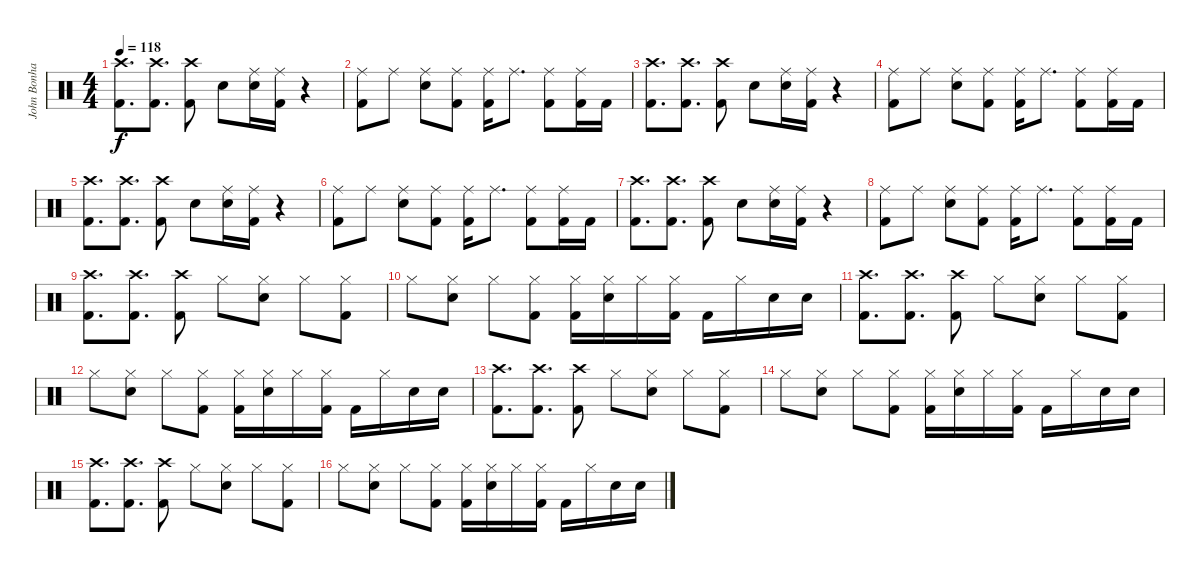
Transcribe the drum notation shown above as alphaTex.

\track ("John Bonham (Bateria)" "John Bonha") {instrument percussion}
\staff {score}
\articulation defaults
\ts (4 4)
\tempo 118
\clef neutral
\ks c
("Crash high (hit)" "Kick (hit) 2").8{d dy f} ("Kick (hit) 2" "Crash high (hit)").8{d} ("Kick (hit) 2" "Crash high (hit)").8 "Snare (hit) 2".8 ("Snare (hit) 2" "Ride (middle)").16 ("Kick (hit) 2" "Ride (middle)").16 r.4 |
("Ride (middle)" "Kick (hit) 2").8 "Ride (middle)".8 ("Snare (hit) 2" "Ride (middle)").8 ("Kick (hit) 2" "Ride (middle)").8 ("Kick (hit) 2" "Ride (middle)").16 "Ride (middle)".8{d} ("Kick (hit) 2" "Ride (middle)").8 ("Kick (hit) 2" "Ride (middle)").16 "Kick (hit) 2".16 |
("Crash high (hit)" "Kick (hit) 2").8{d} ("Kick (hit) 2" "Crash high (hit)").8{d} ("Kick (hit) 2" "Crash high (hit)").8 "Snare (hit) 2".8 ("Snare (hit) 2" "Ride (middle)").16 ("Kick (hit) 2" "Ride (middle)").16 r.4 |
("Ride (middle)" "Kick (hit) 2").8 "Ride (middle)".8 ("Snare (hit) 2" "Ride (middle)").8 ("Kick (hit) 2" "Ride (middle)").8 ("Kick (hit) 2" "Ride (middle)").16 "Ride (middle)".8{d} ("Kick (hit) 2" "Ride (middle)").8 ("Kick (hit) 2" "Ride (middle)").16 "Kick (hit) 2".16 |
("Crash high (hit)" "Kick (hit) 2").8{d} ("Kick (hit) 2" "Crash high (hit)").8{d} ("Kick (hit) 2" "Crash high (hit)").8 "Snare (hit) 2".8 ("Snare (hit) 2" "Ride (middle)").16 ("Kick (hit) 2" "Ride (middle)").16 r.4 |
("Ride (middle)" "Kick (hit) 2").8 "Ride (middle)".8 ("Snare (hit) 2" "Ride (middle)").8 ("Kick (hit) 2" "Ride (middle)").8 ("Kick (hit) 2" "Ride (middle)").16 "Ride (middle)".8{d} ("Kick (hit) 2" "Ride (middle)").8 ("Kick (hit) 2" "Ride (middle)").16 "Kick (hit) 2".16 |
("Crash high (hit)" "Kick (hit) 2").8{d} ("Kick (hit) 2" "Crash high (hit)").8{d} ("Kick (hit) 2" "Crash high (hit)").8 "Snare (hit) 2".8 ("Snare (hit) 2" "Ride (middle)").16 ("Kick (hit) 2" "Ride (middle)").16 r.4 |
("Ride (middle)" "Kick (hit) 2").8 "Ride (middle)".8 ("Snare (hit) 2" "Ride (middle)").8 ("Kick (hit) 2" "Ride (middle)").8 ("Kick (hit) 2" "Ride (middle)").16 "Ride (middle)".8{d} ("Kick (hit) 2" "Ride (middle)").8 ("Kick (hit) 2" "Ride (middle)").16 "Kick (hit) 2".16 |
("Crash high (hit)" "Kick (hit) 2").8{d} ("Kick (hit) 2" "Crash high (hit)").8{d} ("Kick (hit) 2" "Crash high (hit)").8 "Hi-Hat (closed)".8 ("Snare (hit) 2" "Hi-Hat (closed)").8 "Hi-Hat (closed)".8 ("Hi-Hat (closed)" "Kick (hit) 2").8 |
"Hi-Hat (closed)".8 ("Hi-Hat (closed)" "Snare (hit) 2").8 "Hi-Hat (closed)".8 ("Kick (hit) 2" "Hi-Hat (closed)").8 ("Kick (hit) 2" "Hi-Hat (closed)").16 ("Hi-Hat (closed)" "Snare (hit) 2").16 "Hi-Hat (closed)".16 ("Kick (hit) 2" "Hi-Hat (closed)").16 "Kick (hit) 2".16 "Hi-Hat (closed)".16 "Snare (hit) 2".16 "Snare (hit) 2".16 |
("Crash high (hit)" "Kick (hit) 2").8{d} ("Kick (hit) 2" "Crash high (hit)").8{d} ("Kick (hit) 2" "Crash high (hit)").8 "Hi-Hat (closed)".8 ("Snare (hit) 2" "Hi-Hat (closed)").8 "Hi-Hat (closed)".8 ("Hi-Hat (closed)" "Kick (hit) 2").8 |
"Hi-Hat (closed)".8 ("Hi-Hat (closed)" "Snare (hit) 2").8 "Hi-Hat (closed)".8 ("Kick (hit) 2" "Hi-Hat (closed)").8 ("Kick (hit) 2" "Hi-Hat (closed)").16 ("Hi-Hat (closed)" "Snare (hit) 2").16 "Hi-Hat (closed)".16 ("Kick (hit) 2" "Hi-Hat (closed)").16 "Kick (hit) 2".16 "Hi-Hat (closed)".16 "Snare (hit) 2".16 "Snare (hit) 2".16 |
("Crash high (hit)" "Kick (hit) 2").8{d} ("Kick (hit) 2" "Crash high (hit)").8{d} ("Kick (hit) 2" "Crash high (hit)").8 "Hi-Hat (closed)".8 ("Snare (hit) 2" "Hi-Hat (closed)").8 "Hi-Hat (closed)".8 ("Hi-Hat (closed)" "Kick (hit) 2").8 |
"Hi-Hat (closed)".8 ("Hi-Hat (closed)" "Snare (hit) 2").8 "Hi-Hat (closed)".8 ("Kick (hit) 2" "Hi-Hat (closed)").8 ("Kick (hit) 2" "Hi-Hat (closed)").16 ("Hi-Hat (closed)" "Snare (hit) 2").16 "Hi-Hat (closed)".16 ("Kick (hit) 2" "Hi-Hat (closed)").16 "Kick (hit) 2".16 "Hi-Hat (closed)".16 "Snare (hit) 2".16 "Snare (hit) 2".16 |
("Crash high (hit)" "Kick (hit) 2").8{d} ("Kick (hit) 2" "Crash high (hit)").8{d} ("Kick (hit) 2" "Crash high (hit)").8 "Hi-Hat (closed)".8 ("Snare (hit) 2" "Hi-Hat (closed)").8 "Hi-Hat (closed)".8 ("Hi-Hat (closed)" "Kick (hit) 2").8 |
"Hi-Hat (closed)".8 ("Hi-Hat (closed)" "Snare (hit) 2").8 "Hi-Hat (closed)".8 ("Kick (hit) 2" "Hi-Hat (closed)").8 ("Kick (hit) 2" "Hi-Hat (closed)").16 ("Hi-Hat (closed)" "Snare (hit) 2").16 "Hi-Hat (closed)".16 ("Kick (hit) 2" "Hi-Hat (closed)").16 "Kick (hit) 2".16 "Hi-Hat (closed)".16 "Snare (hit) 2".16 "Snare (hit) 2".16
